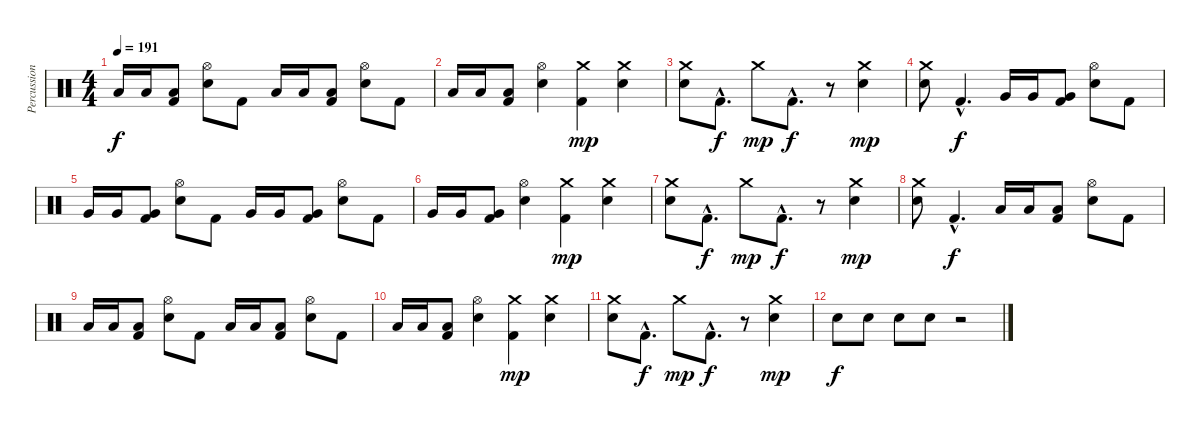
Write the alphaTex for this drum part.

\track ("Percussions" "Percussion") {instrument percussion}
\staff {score}
\articulation defaults
\ts (4 4)
\tempo 191
\clef neutral
\ks c "Low Tom (hit)".16{dy f} "Low Tom (hit)".16
("Kick (hit) 2" "Low Tom (hit)").8 ("Snare (hit) 2" "Hi-Hat (open)").8 "Kick (hit) 2".8 "Low Tom (hit)".16 "Low Tom (hit)".16 ("Kick (hit) 2" "Low Tom (hit)").8 ("Snare (hit) 2" "Hi-Hat (open)").8 "Kick (hit) 2".8 |
"Low Tom (hit)".16 "Low Tom (hit)".16 ("Kick (hit) 2" "Low Tom (hit)").8 ("Snare (hit) 2" "Hi-Hat (open)").4 ("Kick (hit) 2" "Crash medium (hit)").4{dy mp} ("Snare (hit) 2" "Crash medium (hit)").4 |
("Snare (hit) 2" "Crash medium (hit)").8 "Kick (hit) 2"{hac}.8{d dy f} "Crash medium (hit)".8{dy mp} "Kick (hit) 2"{hac}.8{d dy f} r.8 ("Snare (hit) 2" "Crash medium (hit)").4{dy mp} |
("Snare (hit) 2" "Crash medium (hit)").8 "Kick (hit) 2"{hac}.4{d dy f} "Very Low Tom (hit)".16 "Very Low Tom (hit)".16 ("Kick (hit) 2" "Very Low Tom (hit)").8 ("Snare (hit) 2" "Hi-Hat (open)").8 "Kick (hit) 2".8 |
"Very Low Tom (hit)".16 "Very Low Tom (hit)".16 ("Kick (hit) 2" "Very Low Tom (hit)").8 ("Snare (hit) 2" "Hi-Hat (open)").8 "Kick (hit) 2".8 "Very Low Tom (hit)".16 "Very Low Tom (hit)".16 ("Kick (hit) 2" "Very Low Tom (hit)").8 ("Snare (hit) 2" "Hi-Hat (open)").8 "Kick (hit) 2".8 |
"Very Low Tom (hit)".16 "Very Low Tom (hit)".16 ("Kick (hit) 2" "Very Low Tom (hit)").8 ("Snare (hit) 2" "Hi-Hat (open)").4 ("Kick (hit) 2" "Crash medium (hit)").4{dy mp} ("Snare (hit) 2" "Crash medium (hit)").4 |
("Snare (hit) 2" "Crash medium (hit)").8 "Kick (hit) 2"{hac}.8{d dy f} "Crash medium (hit)".8{dy mp} "Kick (hit) 2"{hac}.8{d dy f} r.8 ("Snare (hit) 2" "Crash medium (hit)").4{dy mp} |
("Snare (hit) 2" "Crash medium (hit)").8 "Kick (hit) 2"{hac}.4{d dy f} "Low Tom (hit)".16 "Low Tom (hit)".16 ("Kick (hit) 2" "Low Tom (hit)").8 ("Snare (hit) 2" "Hi-Hat (open)").8 "Kick (hit) 2".8 |
"Low Tom (hit)".16 "Low Tom (hit)".16 ("Kick (hit) 2" "Low Tom (hit)").8 ("Snare (hit) 2" "Hi-Hat (open)").8 "Kick (hit) 2".8 "Low Tom (hit)".16 "Low Tom (hit)".16 ("Kick (hit) 2" "Low Tom (hit)").8 ("Snare (hit) 2" "Hi-Hat (open)").8 "Kick (hit) 2".8 |
"Low Tom (hit)".16 "Low Tom (hit)".16 ("Kick (hit) 2" "Low Tom (hit)").8 ("Snare (hit) 2" "Hi-Hat (open)").4 ("Kick (hit) 2" "Crash medium (hit)").4{dy mp} ("Snare (hit) 2" "Crash medium (hit)").4 |
("Snare (hit) 2" "Crash medium (hit)").8 "Kick (hit) 2"{hac}.8{d dy f} "Crash medium (hit)".8{dy mp} "Kick (hit) 2"{hac}.8{d dy f} r.8 ("Snare (hit) 2" "Crash medium (hit)").4{dy mp} |
"Snare (hit) 2".8{dy f} "Snare (hit) 2".8 "Snare (hit) 2".8 "Snare (hit) 2".8 r.2
